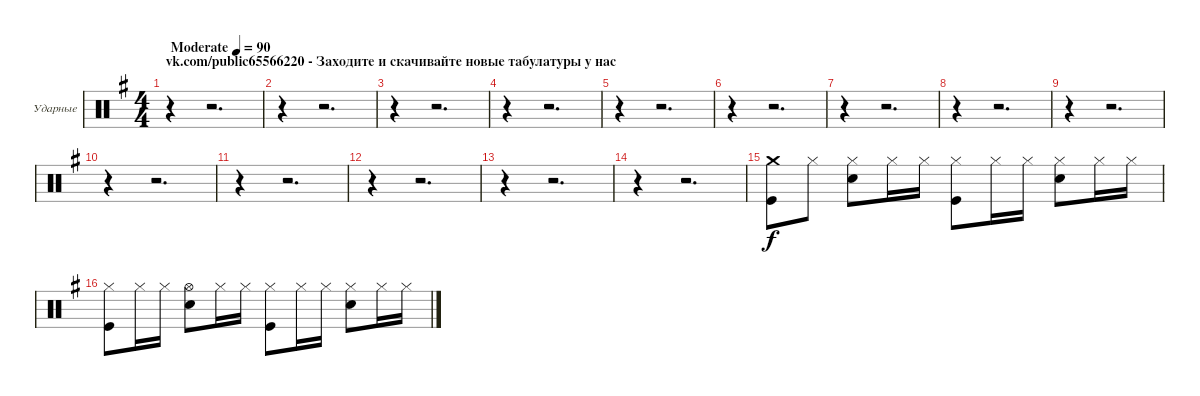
\bracketExtendMode groupsimilarinstruments
\firstSystemTrackNameOrientation horizontal
\otherSystemsTrackNameOrientation horizontal
\track ("Александр Львов" "Ударные") {instrument percussion}
\staff {score}
\articulation defaults
\ts (4 4)
\beaming (8 2 2 2 2)
\section ("" "vk.com/public65566220 - Заходите и скачивайте новые табулатуры у нас")
\tempo (90 "Moderate")
\clef neutral
\ks eminor
r.4{dy f} r.2{d} |
r.4 r.2{d} |
r.4 r.2{d} |
r.4 r.2{d} |
r.4 r.2{d} |
r.4 r.2{d} |
r.4 r.2{d} |
r.4 r.2{d} |
r.4 r.2{d} |
r.4 r.2{d} |
r.4 r.2{d} |
r.4 r.2{d} |
r.4 r.2{d} |
r.4 r.2{d} |
("Kick (hit)" "Crash medium (hit)").8 "Hi-Hat (closed)".8 ("Hi-Hat (closed)" "Snare (hit) 2").8 "Hi-Hat (closed)".16 "Hi-Hat (closed)".16 ("Hi-Hat (closed)" "Kick (hit)").8 "Hi-Hat (closed)".16 "Hi-Hat (closed)".16 ("Hi-Hat (closed)" "Snare (hit) 2").8 "Hi-Hat (closed)".16 "Hi-Hat (closed)".16 |
("Kick (hit)" "Hi-Hat (closed)").8 "Hi-Hat (closed)".16 "Hi-Hat (closed)".16 ("Hi-Hat (open)" "Snare (hit) 2").8 "Hi-Hat (closed)".16 "Hi-Hat (closed)".16 ("Hi-Hat (closed)" "Kick (hit)").8 "Hi-Hat (closed)".16 "Hi-Hat (closed)".16 ("Hi-Hat (closed)" "Snare (hit) 2").8 "Hi-Hat (closed)".16 "Hi-Hat (closed)".16
